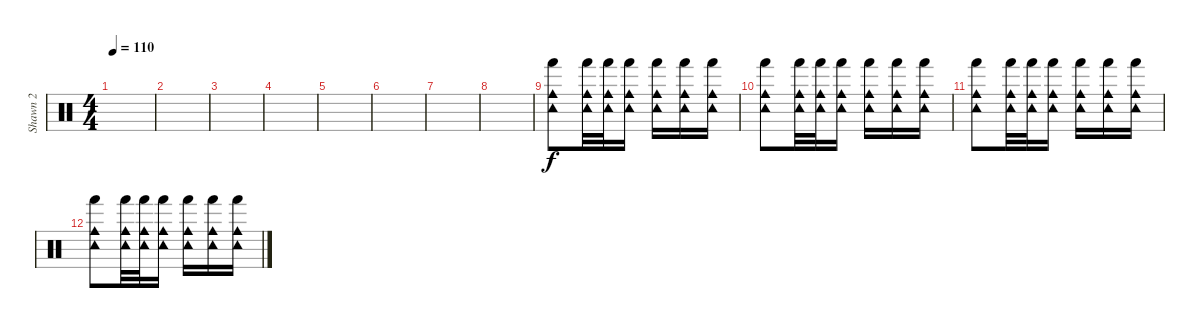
\track ("Shawn 2" "Shawn 2") {instrument percussion}
\staff {score}
\articulation defaults
\ts (4 4)
\tempo 110
\clef neutral
\ks c
|
|
|
|
|
|
|
|
("Cowbell medium (hit)" "Hand (hit)" "Tambourine (hit)").8 ("Cowbell medium (hit)" "Hand (hit)" "Tambourine (hit)").32 ("Cowbell medium (hit)" "Hand (hit)" "Tambourine (hit)").32 ("Cowbell medium (hit)" "Hand (hit)" "Tambourine (hit)").16 ("Cowbell medium (hit)" "Hand (hit)" "Tambourine (hit)").16 ("Cowbell medium (hit)" "Hand (hit)" "Tambourine (hit)").16 ("Cowbell medium (hit)" "Hand (hit)" "Tambourine (hit)").16 |
("Cowbell medium (hit)" "Hand (hit)" "Tambourine (hit)").8 ("Cowbell medium (hit)" "Hand (hit)" "Tambourine (hit)").32 ("Cowbell medium (hit)" "Hand (hit)" "Tambourine (hit)").32 ("Cowbell medium (hit)" "Hand (hit)" "Tambourine (hit)").16 ("Cowbell medium (hit)" "Hand (hit)" "Tambourine (hit)").16 ("Cowbell medium (hit)" "Hand (hit)" "Tambourine (hit)").16 ("Cowbell medium (hit)" "Hand (hit)" "Tambourine (hit)").16 |
("Cowbell medium (hit)" "Hand (hit)" "Tambourine (hit)").8 ("Cowbell medium (hit)" "Hand (hit)" "Tambourine (hit)").32 ("Cowbell medium (hit)" "Hand (hit)" "Tambourine (hit)").32 ("Cowbell medium (hit)" "Hand (hit)" "Tambourine (hit)").16 ("Cowbell medium (hit)" "Hand (hit)" "Tambourine (hit)").16 ("Cowbell medium (hit)" "Hand (hit)" "Tambourine (hit)").16 ("Cowbell medium (hit)" "Hand (hit)" "Tambourine (hit)").16 |
("Cowbell medium (hit)" "Hand (hit)" "Tambourine (hit)").8 ("Cowbell medium (hit)" "Hand (hit)" "Tambourine (hit)").32 ("Cowbell medium (hit)" "Hand (hit)" "Tambourine (hit)").32 ("Cowbell medium (hit)" "Hand (hit)" "Tambourine (hit)").16 ("Cowbell medium (hit)" "Hand (hit)" "Tambourine (hit)").16 ("Cowbell medium (hit)" "Hand (hit)" "Tambourine (hit)").16 ("Cowbell medium (hit)" "Hand (hit)" "Tambourine (hit)").16
